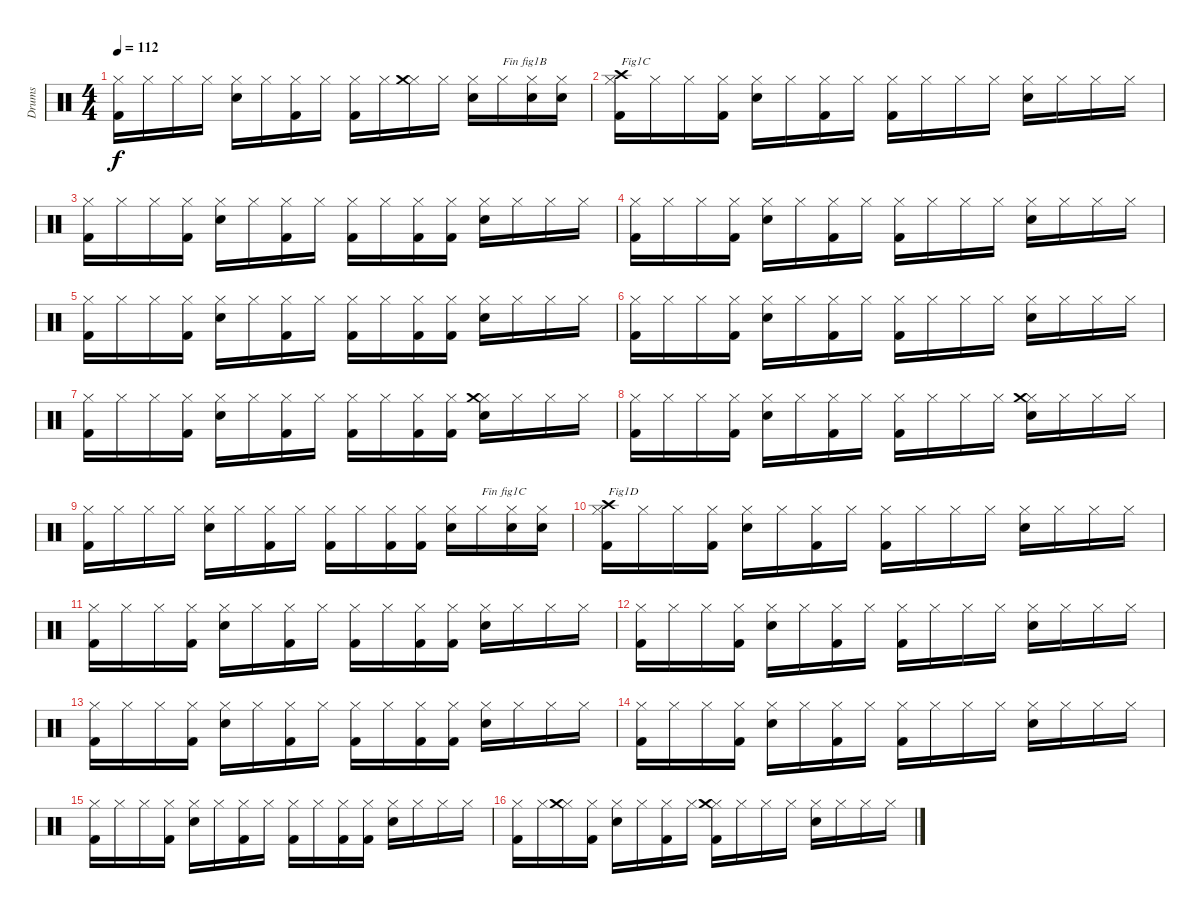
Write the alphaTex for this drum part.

\track ("Drums" "Drums") {instrument percussion}
\staff {score}
\articulation defaults
\ts (4 4)
\tempo 112
\clef neutral
\ks c
("Kick (hit) 2" "Hi-Hat (closed)").16{dy f} "Hi-Hat (closed)".16 "Hi-Hat (closed)".16 "Hi-Hat (closed)".16 ("Electric Snare (hit)" "Hi-Hat (closed)").16 "Hi-Hat (closed)".16 ("Kick (hit) 2" "Hi-Hat (closed)").16 "Hi-Hat (closed)".16 ("Kick (hit) 2" "Hi-Hat (closed)").16 "Hi-Hat (closed)".16 ("Hi-Hat (closed)" "Crash medium (hit)").16 "Hi-Hat (closed)".16 ("Electric Snare (hit)" "Hi-Hat (closed)").16 "Hi-Hat (closed)".16{txt "Fin fig1B"} ("Electric Snare (hit)" "Hi-Hat (closed)").16 ("Electric Snare (hit)" "Hi-Hat (closed)").16 |
("Kick (hit) 2" "Hi-Hat (closed)" "Crash high (hit)").16{txt "Fig1C"} "Hi-Hat (closed)".16 "Hi-Hat (closed)".16 ("Kick (hit) 2" "Hi-Hat (closed)").16 ("Electric Snare (hit)" "Hi-Hat (closed)").16 "Hi-Hat (closed)".16 ("Kick (hit) 2" "Hi-Hat (closed)").16 "Hi-Hat (closed)".16 ("Kick (hit) 2" "Hi-Hat (closed)").16 "Hi-Hat (closed)".16 "Hi-Hat (closed)".16 "Hi-Hat (closed)".16 ("Electric Snare (hit)" "Hi-Hat (closed)").16 "Hi-Hat (closed)".16 "Hi-Hat (closed)".16 "Hi-Hat (closed)".16 |
("Kick (hit) 2" "Hi-Hat (closed)").16 "Hi-Hat (closed)".16 "Hi-Hat (closed)".16 ("Kick (hit) 2" "Hi-Hat (closed)").16 ("Electric Snare (hit)" "Hi-Hat (closed)").16 "Hi-Hat (closed)".16 ("Kick (hit) 2" "Hi-Hat (closed)").16 "Hi-Hat (closed)".16 ("Kick (hit) 2" "Hi-Hat (closed)").16 "Hi-Hat (closed)".16 ("Kick (hit) 2" "Hi-Hat (closed)").16 ("Kick (hit) 2" "Hi-Hat (closed)").16 ("Electric Snare (hit)" "Hi-Hat (closed)").16 "Hi-Hat (closed)".16 "Hi-Hat (closed)".16 "Hi-Hat (closed)".16 |
("Kick (hit) 2" "Hi-Hat (closed)").16 "Hi-Hat (closed)".16 "Hi-Hat (closed)".16 ("Kick (hit) 2" "Hi-Hat (closed)").16 ("Electric Snare (hit)" "Hi-Hat (closed)").16 "Hi-Hat (closed)".16 ("Kick (hit) 2" "Hi-Hat (closed)").16 "Hi-Hat (closed)".16 ("Kick (hit) 2" "Hi-Hat (closed)").16 "Hi-Hat (closed)".16 "Hi-Hat (closed)".16 "Hi-Hat (closed)".16 ("Electric Snare (hit)" "Hi-Hat (closed)").16 "Hi-Hat (closed)".16 "Hi-Hat (closed)".16 "Hi-Hat (closed)".16 |
("Kick (hit) 2" "Hi-Hat (closed)").16 "Hi-Hat (closed)".16 "Hi-Hat (closed)".16 ("Kick (hit) 2" "Hi-Hat (closed)").16 ("Electric Snare (hit)" "Hi-Hat (closed)").16 "Hi-Hat (closed)".16 ("Kick (hit) 2" "Hi-Hat (closed)").16 "Hi-Hat (closed)".16 ("Kick (hit) 2" "Hi-Hat (closed)").16 "Hi-Hat (closed)".16 ("Kick (hit) 2" "Hi-Hat (closed)").16 ("Kick (hit) 2" "Hi-Hat (closed)").16 ("Electric Snare (hit)" "Hi-Hat (closed)").16 "Hi-Hat (closed)".16 "Hi-Hat (closed)".16 "Hi-Hat (closed)".16 |
("Kick (hit) 2" "Hi-Hat (closed)").16 "Hi-Hat (closed)".16 "Hi-Hat (closed)".16 ("Kick (hit) 2" "Hi-Hat (closed)").16 ("Electric Snare (hit)" "Hi-Hat (closed)").16 "Hi-Hat (closed)".16 ("Kick (hit) 2" "Hi-Hat (closed)").16 "Hi-Hat (closed)".16 ("Kick (hit) 2" "Hi-Hat (closed)").16 "Hi-Hat (closed)".16 "Hi-Hat (closed)".16 "Hi-Hat (closed)".16 ("Electric Snare (hit)" "Hi-Hat (closed)").16 "Hi-Hat (closed)".16 "Hi-Hat (closed)".16 "Hi-Hat (closed)".16 |
("Kick (hit) 2" "Hi-Hat (closed)").16 "Hi-Hat (closed)".16 "Hi-Hat (closed)".16 ("Kick (hit) 2" "Hi-Hat (closed)").16 ("Electric Snare (hit)" "Hi-Hat (closed)").16 "Hi-Hat (closed)".16 ("Kick (hit) 2" "Hi-Hat (closed)").16 "Hi-Hat (closed)".16 ("Kick (hit) 2" "Hi-Hat (closed)").16 "Hi-Hat (closed)".16 ("Kick (hit) 2" "Hi-Hat (closed)").16 ("Kick (hit) 2" "Hi-Hat (closed)").16 ("Electric Snare (hit)" "Hi-Hat (closed)" "Crash medium (hit)").16 "Hi-Hat (closed)".16 "Hi-Hat (closed)".16 "Hi-Hat (closed)".16 |
("Kick (hit) 2" "Hi-Hat (closed)").16 "Hi-Hat (closed)".16 "Hi-Hat (closed)".16 ("Kick (hit) 2" "Hi-Hat (closed)").16 ("Electric Snare (hit)" "Hi-Hat (closed)").16 "Hi-Hat (closed)".16 ("Kick (hit) 2" "Hi-Hat (closed)").16 "Hi-Hat (closed)".16 ("Kick (hit) 2" "Hi-Hat (closed)").16 "Hi-Hat (closed)".16 "Hi-Hat (closed)".16 "Hi-Hat (closed)".16 ("Electric Snare (hit)" "Hi-Hat (closed)" "Crash medium (hit)").16 "Hi-Hat (closed)".16 "Hi-Hat (closed)".16 "Hi-Hat (closed)".16 |
("Kick (hit) 2" "Hi-Hat (closed)").16 "Hi-Hat (closed)".16 "Hi-Hat (closed)".16 "Hi-Hat (closed)".16 ("Electric Snare (hit)" "Hi-Hat (closed)").16 "Hi-Hat (closed)".16 ("Kick (hit) 2" "Hi-Hat (closed)").16 "Hi-Hat (closed)".16 ("Kick (hit) 2" "Hi-Hat (closed)").16 "Hi-Hat (closed)".16 ("Kick (hit) 2" "Hi-Hat (closed)").16 ("Kick (hit) 2" "Hi-Hat (closed)").16 ("Electric Snare (hit)" "Hi-Hat (closed)").16 "Hi-Hat (closed)".16{txt "Fin fig1C"} ("Electric Snare (hit)" "Hi-Hat (closed)").16 ("Electric Snare (hit)" "Hi-Hat (closed)").16 |
("Kick (hit) 2" "Hi-Hat (closed)" "Crash high (hit)").16{txt "Fig1D"} "Hi-Hat (closed)".16 "Hi-Hat (closed)".16 ("Kick (hit) 2" "Hi-Hat (closed)").16 ("Electric Snare (hit)" "Hi-Hat (closed)").16 "Hi-Hat (closed)".16 ("Kick (hit) 2" "Hi-Hat (closed)").16 "Hi-Hat (closed)".16 ("Kick (hit) 2" "Hi-Hat (closed)").16 "Hi-Hat (closed)".16 "Hi-Hat (closed)".16 "Hi-Hat (closed)".16 ("Electric Snare (hit)" "Hi-Hat (closed)").16 "Hi-Hat (closed)".16 "Hi-Hat (closed)".16 "Hi-Hat (closed)".16 |
("Kick (hit) 2" "Hi-Hat (closed)").16 "Hi-Hat (closed)".16 "Hi-Hat (closed)".16 ("Kick (hit) 2" "Hi-Hat (closed)").16 ("Electric Snare (hit)" "Hi-Hat (closed)").16 "Hi-Hat (closed)".16 ("Kick (hit) 2" "Hi-Hat (closed)").16 "Hi-Hat (closed)".16 ("Kick (hit) 2" "Hi-Hat (closed)").16 "Hi-Hat (closed)".16 ("Kick (hit) 2" "Hi-Hat (closed)").16 ("Kick (hit) 2" "Hi-Hat (closed)").16 ("Electric Snare (hit)" "Hi-Hat (closed)").16 "Hi-Hat (closed)".16 "Hi-Hat (closed)".16 "Hi-Hat (closed)".16 |
("Kick (hit) 2" "Hi-Hat (closed)").16 "Hi-Hat (closed)".16 "Hi-Hat (closed)".16 ("Kick (hit) 2" "Hi-Hat (closed)").16 ("Electric Snare (hit)" "Hi-Hat (closed)").16 "Hi-Hat (closed)".16 ("Kick (hit) 2" "Hi-Hat (closed)").16 "Hi-Hat (closed)".16 ("Kick (hit) 2" "Hi-Hat (closed)").16 "Hi-Hat (closed)".16 "Hi-Hat (closed)".16 "Hi-Hat (closed)".16 ("Electric Snare (hit)" "Hi-Hat (closed)").16 "Hi-Hat (closed)".16 "Hi-Hat (closed)".16 "Hi-Hat (closed)".16 |
("Kick (hit) 2" "Hi-Hat (closed)").16 "Hi-Hat (closed)".16 "Hi-Hat (closed)".16 ("Kick (hit) 2" "Hi-Hat (closed)").16 ("Electric Snare (hit)" "Hi-Hat (closed)").16 "Hi-Hat (closed)".16 ("Kick (hit) 2" "Hi-Hat (closed)").16 "Hi-Hat (closed)".16 ("Kick (hit) 2" "Hi-Hat (closed)").16 "Hi-Hat (closed)".16 ("Kick (hit) 2" "Hi-Hat (closed)").16 ("Kick (hit) 2" "Hi-Hat (closed)").16 ("Electric Snare (hit)" "Hi-Hat (closed)").16 "Hi-Hat (closed)".16 "Hi-Hat (closed)".16 "Hi-Hat (closed)".16 |
("Kick (hit) 2" "Hi-Hat (closed)").16 "Hi-Hat (closed)".16 "Hi-Hat (closed)".16 ("Kick (hit) 2" "Hi-Hat (closed)").16 ("Electric Snare (hit)" "Hi-Hat (closed)").16 "Hi-Hat (closed)".16 ("Kick (hit) 2" "Hi-Hat (closed)").16 "Hi-Hat (closed)".16 ("Kick (hit) 2" "Hi-Hat (closed)").16 "Hi-Hat (closed)".16 "Hi-Hat (closed)".16 "Hi-Hat (closed)".16 ("Electric Snare (hit)" "Hi-Hat (closed)").16 "Hi-Hat (closed)".16 "Hi-Hat (closed)".16 "Hi-Hat (closed)".16 |
("Kick (hit) 2" "Hi-Hat (closed)").16 "Hi-Hat (closed)".16 "Hi-Hat (closed)".16 ("Kick (hit) 2" "Hi-Hat (closed)").16 ("Electric Snare (hit)" "Hi-Hat (closed)").16 "Hi-Hat (closed)".16 ("Kick (hit) 2" "Hi-Hat (closed)").16 "Hi-Hat (closed)".16 ("Kick (hit) 2" "Hi-Hat (closed)").16 "Hi-Hat (closed)".16 ("Kick (hit) 2" "Hi-Hat (closed)").16 ("Kick (hit) 2" "Hi-Hat (closed)").16 ("Electric Snare (hit)" "Hi-Hat (closed)").16 "Hi-Hat (closed)".16 "Hi-Hat (closed)".16 "Hi-Hat (closed)".16 |
("Kick (hit) 2" "Hi-Hat (closed)").16 "Hi-Hat (closed)".16 ("Hi-Hat (closed)" "Crash medium (hit)").16 ("Kick (hit) 2" "Hi-Hat (closed)").16 ("Electric Snare (hit)" "Hi-Hat (closed)").16 "Hi-Hat (closed)".16 ("Kick (hit) 2" "Hi-Hat (closed)").16 "Hi-Hat (closed)".16 ("Kick (hit) 2" "Hi-Hat (closed)" "Crash medium (hit)").16 "Hi-Hat (closed)".16 "Hi-Hat (closed)".16 "Hi-Hat (closed)".16 ("Electric Snare (hit)" "Hi-Hat (closed)").16 "Hi-Hat (closed)".16 "Hi-Hat (closed)".16 "Hi-Hat (closed)".16
